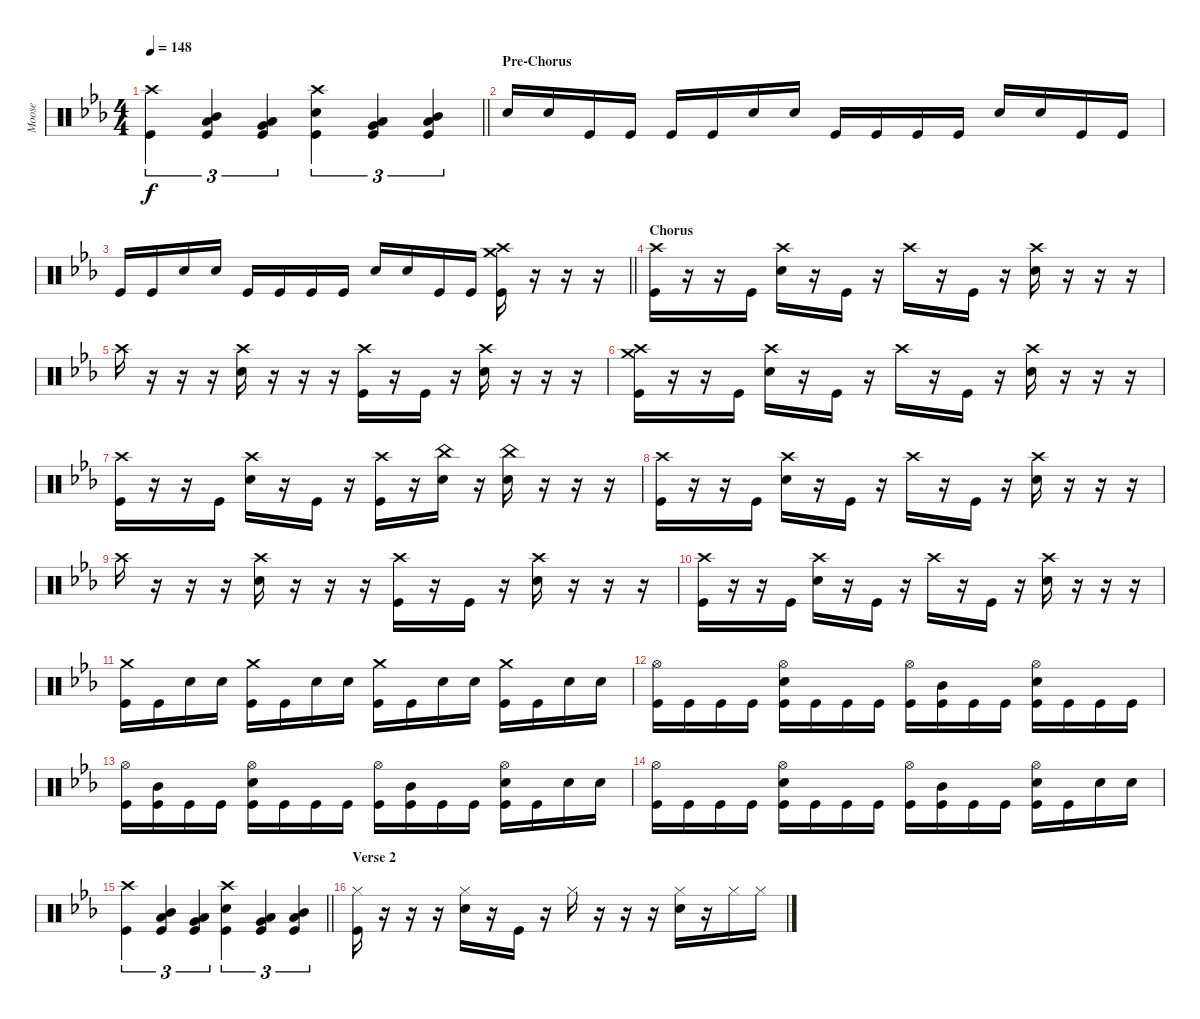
\track ("Moose" "Moose") {instrument percussion}
\staff {score}
\articulation defaults
\ts (4 4)
\tempo 148
\clef neutral
\barLineRight lightlight
\ks eb
("Crash high (hit)" "Kick (hit)").4{tu (3 2) dy f} ("Mid Tom (hit)" "Low Tom (hit)" "Kick (hit)").4{tu (3 2)} ("Low Tom (hit)" "Very Low Tom (hit)" "Kick (hit)").4{tu (3 2)} ("Crash high (hit)" "Snare (hit) 2" "Kick (hit)").4{tu (3 2)} ("Low Tom (hit)" "Very Low Tom (hit)" "Kick (hit)").4{tu (3 2)} ("Mid Tom (hit)" "Low Tom (hit)" "Kick (hit)").4{tu (3 2)} |
\section ("" "Pre-Chorus")
"Snare (hit) 2".16 "Snare (hit) 2".16 "Kick (hit)".16 "Kick (hit)".16 "Kick (hit)".16 "Kick (hit)".16 "Snare (hit) 2".16 "Snare (hit) 2".16 "Kick (hit)".16 "Kick (hit)".16 "Kick (hit)".16 "Kick (hit)".16 "Snare (hit) 2".16 "Snare (hit) 2".16 "Kick (hit)".16 "Kick (hit)".16 |
\barLineRight lightlight "Kick (hit)".16 "Kick (hit)".16 "Snare (hit) 2".16 "Snare (hit) 2".16 "Kick (hit)".16 "Kick (hit)".16 "Kick (hit)".16 "Kick (hit)".16 "Snare (hit) 2".16 "Snare (hit) 2".16 "Kick (hit)".16 "Kick (hit)".16
("Crash high (hit)" "Crash medium (hit)" "Kick (hit)").16 r.16 r.16 r.16 |
\section ("" "Chorus")
("Crash high (hit)" "Kick (hit)").16 r.16 r.16 "Kick (hit)".16 ("Crash high (hit)" "Snare (hit) 2").16 r.16 "Kick (hit)".16 r.16 "Crash high (hit)".16 r.16 "Kick (hit)".16 r.16 ("Crash high (hit)" "Snare (hit) 2").16 r.16 r.16 r.16 |
"Crash high (hit)".16 r.16 r.16 r.16 ("Crash high (hit)" "Snare (hit) 2").16 r.16 r.16 r.16 ("Crash high (hit)" "Kick (hit)").16 r.16 "Kick (hit)".16 r.16 ("Crash high (hit)" "Snare (hit) 2").16 r.16 r.16 r.16 |
("Crash high (hit)" "Crash medium (hit)" "Kick (hit)").16 r.16 r.16 "Kick (hit)".16 ("Crash high (hit)" "Snare (hit) 2").16 r.16 "Kick (hit)".16 r.16 "Crash high (hit)".16 r.16 "Kick (hit)".16 r.16 ("Crash high (hit)" "Snare (hit) 2").16 r.16 r.16 r.16 |
("Crash high (hit)" "Kick (hit)").16 r.16 r.16 "Kick (hit)".16 ("Crash high (hit)" "Snare (hit) 2").16 r.16 "Kick (hit)".16 r.16 ("Crash high (hit)" "Kick (hit)").16 r.16 ("China (hit)" "Snare (hit) 2").16 r.16 ("China (hit)" "Snare (hit) 2").16 r.16 r.16 r.16 |
("Crash high (hit)" "Kick (hit)").16 r.16 r.16 "Kick (hit)".16 ("Crash high (hit)" "Snare (hit) 2").16 r.16 "Kick (hit)".16 r.16 "Crash high (hit)".16 r.16 "Kick (hit)".16 r.16 ("Crash high (hit)" "Snare (hit) 2").16 r.16 r.16 r.16 |
"Crash high (hit)".16 r.16 r.16 r.16 ("Crash high (hit)" "Snare (hit) 2").16 r.16 r.16 r.16 ("Crash high (hit)" "Kick (hit)").16 r.16 "Kick (hit)".16 r.16 ("Crash high (hit)" "Snare (hit) 2").16 r.16 r.16 r.16 |
("Crash high (hit)" "Kick (hit)").16 r.16 r.16 "Kick (hit)".16 ("Crash high (hit)" "Snare (hit) 2").16 r.16 "Kick (hit)".16 r.16 "Crash high (hit)".16 r.16 "Kick (hit)".16 r.16 ("Crash high (hit)" "Snare (hit) 2").16 r.16 r.16 r.16 |
("Crash medium (hit)" "Kick (hit)").16 "Kick (hit)".16 "Snare (hit) 2".16 "Snare (hit) 2".16 ("Crash medium (hit)" "Kick (hit)").16 "Kick (hit)".16 "Snare (hit) 2".16 "Snare (hit) 2".16 ("Crash medium (hit)" "Kick (hit)").16 "Kick (hit)".16 "Snare (hit) 2".16 "Snare (hit) 2".16 ("Crash medium (hit)" "Kick (hit)").16 "Kick (hit)".16 "Snare (hit) 2".16 "Snare (hit) 2".16 |
("Hi-Hat (open)" "Kick (hit)").16 "Kick (hit)".16 "Kick (hit)".16 "Kick (hit)".16 ("Hi-Hat (open)" "Snare (hit) 2" "Kick (hit)").16 "Kick (hit)".16 "Kick (hit)".16 "Kick (hit)".16 ("Hi-Hat (open)" "Kick (hit)").16 ("Mid Tom (hit)" "Kick (hit)").16 "Kick (hit)".16 "Kick (hit)".16 ("Hi-Hat (open)" "Snare (hit) 2" "Kick (hit)").16 "Kick (hit)".16 "Kick (hit)".16 "Kick (hit)".16 |
("Hi-Hat (open)" "Kick (hit)").16 ("Mid Tom (hit)" "Kick (hit)").16 "Kick (hit)".16 "Kick (hit)".16 ("Hi-Hat (open)" "Snare (hit) 2" "Kick (hit)").16 "Kick (hit)".16 "Kick (hit)".16 "Kick (hit)".16 ("Hi-Hat (open)" "Kick (hit)").16 ("Mid Tom (hit)" "Kick (hit)").16 "Kick (hit)".16 "Kick (hit)".16 ("Hi-Hat (open)" "Snare (hit) 2" "Kick (hit)").16 "Kick (hit)".16 "Snare (hit) 2".16 "Snare (hit) 2".16 |
("Hi-Hat (open)" "Kick (hit)").16 "Kick (hit)".16 "Kick (hit)".16 "Kick (hit)".16 ("Hi-Hat (open)" "Snare (hit) 2" "Kick (hit)").16 "Kick (hit)".16 "Kick (hit)".16 "Kick (hit)".16 ("Hi-Hat (open)" "Kick (hit)").16 ("Mid Tom (hit)" "Kick (hit)").16 "Kick (hit)".16 "Kick (hit)".16 ("Hi-Hat (open)" "Snare (hit) 2" "Kick (hit)").16 "Kick (hit)".16 "Snare (hit) 2".16 "Snare (hit) 2".16 |
\barLineRight lightlight
("Crash high (hit)" "Kick (hit)").4{tu (3 2)} ("Mid Tom (hit)" "Low Tom (hit)" "Kick (hit)").4{tu (3 2)} ("Low Tom (hit)" "Very Low Tom (hit)" "Kick (hit)").4{tu (3 2)} ("Crash high (hit)" "Snare (hit) 2" "Kick (hit)").4{tu (3 2)} ("Low Tom (hit)" "Very Low Tom (hit)" "Kick (hit)").4{tu (3 2)} ("Mid Tom (hit)" "Low Tom (hit)" "Kick (hit)").4{tu (3 2)} |
\section ("" "Verse 2")
("Hi-Hat (closed)" "Kick (hit)").16 r.16 r.16 r.16 ("Hi-Hat (closed)" "Snare (hit) 2").16 r.16 "Kick (hit)".16 r.16 "Hi-Hat (closed)".16 r.16 r.16 r.16 ("Hi-Hat (closed)" "Snare (hit) 2").16 r.16 "Hi-Hat (closed)".16 "Hi-Hat (closed)".16
